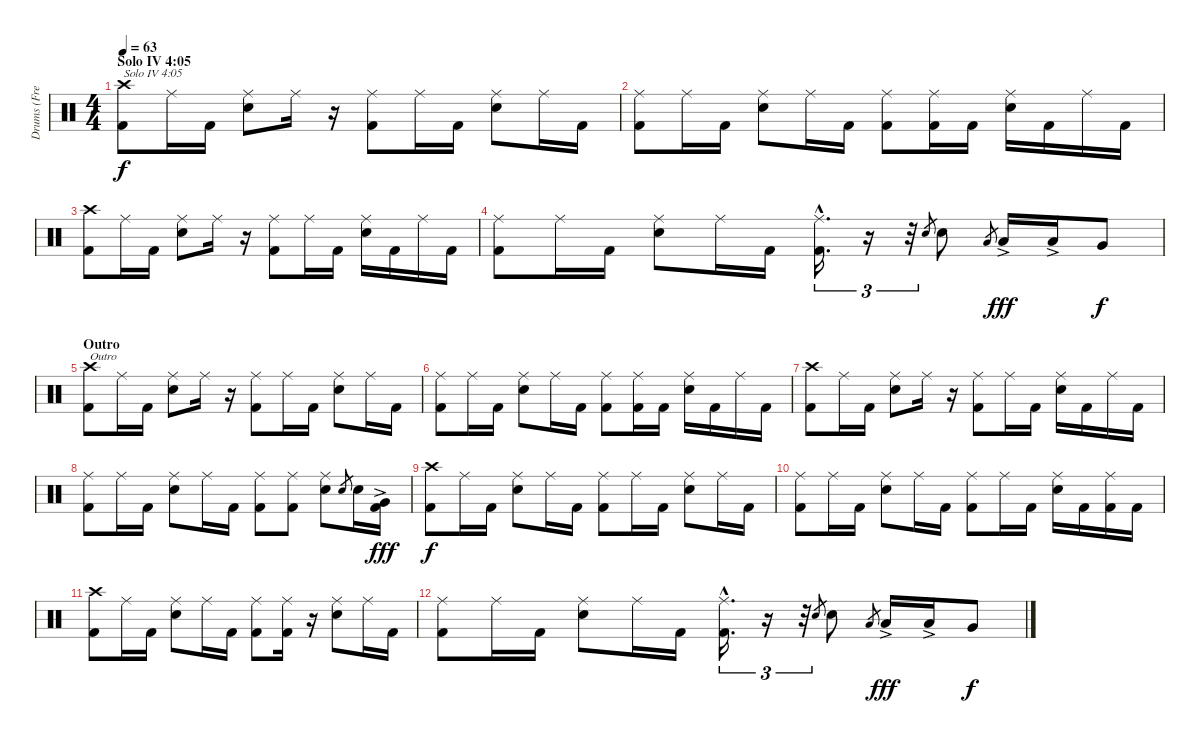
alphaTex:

\track ("Drums (Fred Estby)" "Drums (Fre") {instrument percussion}
\staff {score}
\articulation defaults
\ts (4 4)
\section ("" "Solo IV 4:05")
\tempo 63
\clef neutral
\ks c
("Kick (hit) 2" "Crash high (hit)").8{txt "Solo IV 4:05" dy f} "Ride (middle)".16 "Kick (hit) 2".16 ("Electric Snare (hit)" "Ride (middle)").8 "Ride (middle)".16 r.16 ("Kick (hit) 2" "Ride (middle)").8 "Ride (middle)".16 "Kick (hit) 2".16 ("Electric Snare (hit)" "Ride (middle)").8 "Ride (middle)".16 "Kick (hit) 2".16 |
("Kick (hit) 2" "Ride (middle)").8 "Ride (middle)".16 "Kick (hit) 2".16 ("Electric Snare (hit)" "Ride (middle)").8 "Ride (middle)".16 "Kick (hit) 2".16 ("Kick (hit) 2" "Ride (middle)").8 ("Kick (hit) 2" "Ride (middle)").16 "Kick (hit) 2".16 ("Electric Snare (hit)" "Ride (middle)").16 "Kick (hit) 2".16 "Ride (middle)".16 "Kick (hit) 2".16 |
("Kick (hit) 2" "Crash high (hit)").8 "Ride (middle)".16 "Kick (hit) 2".16 ("Electric Snare (hit)" "Ride (middle)").8 "Ride (middle)".16 r.16 ("Kick (hit) 2" "Ride (middle)").8 "Ride (middle)".16 "Kick (hit) 2".16 ("Electric Snare (hit)" "Ride (middle)").16 "Kick (hit) 2".16 "Ride (middle)".16 "Kick (hit) 2".16 |
("Kick (hit) 2" "Ride (middle)").8 "Ride (middle)".16 "Kick (hit) 2".16 ("Electric Snare (hit)" "Ride (middle)").8 "Ride (middle)".16 "Kick (hit) 2".16 ("Kick (hit) 2"{hac} "Ride (middle)"{hac}).16{d tu (3 2)} r.16{tu (3 2)} r.32{tu (3 2)} "Electric Snare (hit)".8{gr} "Electric Snare (hit)".8 "Low Tom (hit)".8{gr} "Low Tom (hit)"{ac}.16{dy fff} "Low Tom (hit)"{ac}.16 "Very Low Tom (hit)".8{dy f} |
\section ("" "Outro")
("Kick (hit) 2" "Crash high (hit)").8{txt "Outro"} "Ride (middle)".16 "Kick (hit) 2".16 ("Electric Snare (hit)" "Ride (middle)").8 "Ride (middle)".16 r.16 ("Kick (hit) 2" "Ride (middle)").8 "Ride (middle)".16 "Kick (hit) 2".16 ("Electric Snare (hit)" "Ride (middle)").8 "Ride (middle)".16 "Kick (hit) 2".16 |
("Kick (hit) 2" "Ride (middle)").8 "Ride (middle)".16 "Kick (hit) 2".16 ("Electric Snare (hit)" "Ride (middle)").8 "Ride (middle)".16 "Kick (hit) 2".16 ("Kick (hit) 2" "Ride (middle)").8 ("Kick (hit) 2" "Ride (middle)").16 "Kick (hit) 2".16 ("Electric Snare (hit)" "Ride (middle)").16 "Kick (hit) 2".16 "Ride (middle)".16 "Kick (hit) 2".16 |
("Kick (hit) 2" "Crash high (hit)").8 "Ride (middle)".16 "Kick (hit) 2".16 ("Electric Snare (hit)" "Ride (middle)").8 "Ride (middle)".16 r.16 ("Kick (hit) 2" "Ride (middle)").8 "Ride (middle)".16 "Kick (hit) 2".16 ("Electric Snare (hit)" "Ride (middle)").16 "Kick (hit) 2".16 "Ride (middle)".16 "Kick (hit) 2".16 |
("Kick (hit) 2" "Ride (middle)").8 "Ride (middle)".16 "Kick (hit) 2".16 ("Electric Snare (hit)" "Ride (middle)").8 "Ride (middle)".16 "Kick (hit) 2".16 ("Kick (hit) 2" "Ride (middle)").8 ("Kick (hit) 2" "Ride (middle)").8 ("Electric Snare (hit)" "Ride (middle)").8 "Electric Snare (hit)".8{gr} "Electric Snare (hit)".16 ("Kick (hit) 2" "Very Low Tom (hit)"{ac}).16{dy fff} |
("Kick (hit) 2" "Crash high (hit)").8{dy f} "Ride (middle)".16 "Kick (hit) 2".16 ("Electric Snare (hit)" "Ride (middle)").8 "Ride (middle)".16 "Kick (hit) 2".16 ("Kick (hit) 2" "Ride (middle)").8 "Ride (middle)".16 "Kick (hit) 2".16 ("Electric Snare (hit)" "Ride (middle)").8 "Ride (middle)".16 "Kick (hit) 2".16 |
("Kick (hit) 2" "Ride (middle)").8 "Ride (middle)".16 "Kick (hit) 2".16 ("Electric Snare (hit)" "Ride (middle)").8 "Ride (middle)".16 "Kick (hit) 2".16 ("Kick (hit) 2" "Ride (middle)").8 "Ride (middle)".16 "Kick (hit) 2".16 ("Electric Snare (hit)" "Ride (middle)").16 "Kick (hit) 2".16 ("Kick (hit) 2" "Ride (middle)").16 "Kick (hit) 2".16 |
("Kick (hit) 2" "Crash high (hit)").8 "Ride (middle)".16 "Kick (hit) 2".16 ("Electric Snare (hit)" "Ride (middle)").8 "Ride (middle)".16 "Kick (hit) 2".16 ("Kick (hit) 2" "Ride (middle)").8 ("Kick (hit) 2" "Ride (middle)").16 r.16 ("Electric Snare (hit)" "Ride (middle)").8 "Ride (middle)".16 "Kick (hit) 2".16 |
("Kick (hit) 2" "Ride (middle)").8 "Ride (middle)".16 "Kick (hit) 2".16 ("Electric Snare (hit)" "Ride (middle)").8 "Ride (middle)".16 "Kick (hit) 2".16 ("Kick (hit) 2"{hac} "Ride (middle)"{hac}).16{d tu (3 2)} r.16{tu (3 2)} r.32{tu (3 2)} "Electric Snare (hit)".8{gr} "Electric Snare (hit)".8 "Low Tom (hit)".8{gr} "Low Tom (hit)"{ac}.16{dy fff} "Low Tom (hit)"{ac}.16 "Very Low Tom (hit)".8{dy f}
